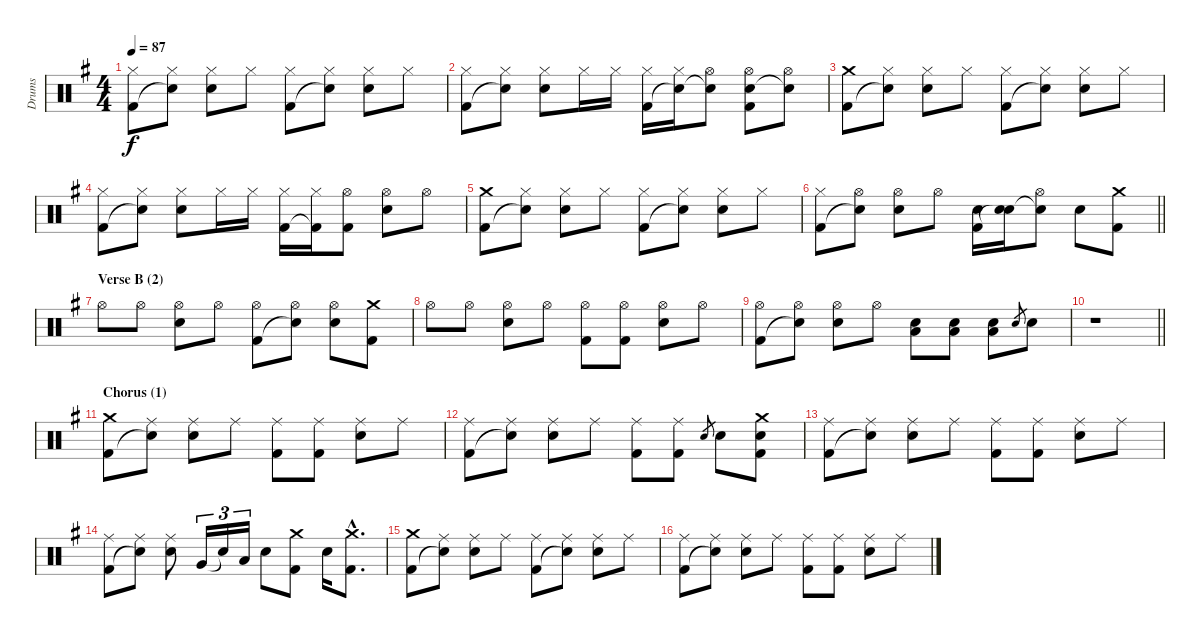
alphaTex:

\track ("Drums" "Drums") {instrument percussion}
\staff {score}
\articulation defaults
\ts (4 4)
\tempo 87
\clef neutral
\ks g
("Hi-Hat (closed)" "Kick (hit) 2").8{dy f} ("Hi-Hat (closed)" "Snare (hit)"{t}).8 ("Hi-Hat (closed)" "Electric Snare (hit)").8 "Hi-Hat (closed)".8 ("Hi-Hat (closed)" "Kick (hit) 2").8 ("Hi-Hat (closed)" "Snare (hit)"{t}).8 ("Hi-Hat (closed)" "Electric Snare (hit)").8 "Hi-Hat (closed)".8 |
("Hi-Hat (closed)" "Kick (hit) 2").8 ("Hi-Hat (closed)" "Snare (hit)"{t}).8 ("Hi-Hat (closed)" "Electric Snare (hit)").8 "Hi-Hat (closed)".16 "Hi-Hat (closed)".16 ("Hi-Hat (closed)" "Kick (hit) 2").16 ("Hi-Hat (closed)" "Snare (hit)"{t}).16 ("Hi-Hat (open)" "Snare (hit)"{t}).8 ("Hi-Hat (open)" "Electric Snare (hit)" "Kick (hit) 2").8 ("Hi-Hat (open)" "Snare (hit)"{t}).8 |
("Crash medium (hit)" "Kick (hit) 2").8 ("Hi-Hat (closed)" "Snare (hit)"{t}).8 ("Hi-Hat (closed)" "Electric Snare (hit)").8 "Hi-Hat (closed)".8 ("Hi-Hat (closed)" "Kick (hit) 2").8 ("Hi-Hat (closed)" "Snare (hit)"{t}).8 ("Hi-Hat (closed)" "Electric Snare (hit)").8 "Hi-Hat (closed)".8 |
("Hi-Hat (closed)" "Kick (hit) 2").8 ("Hi-Hat (closed)" "Snare (hit)"{t}).8 ("Hi-Hat (closed)" "Electric Snare (hit)").8 "Hi-Hat (closed)".16 "Hi-Hat (closed)".16 ("Hi-Hat (closed)" "Kick (hit) 2").16 ("Hi-Hat (closed)" "Kick (hit) 2"{t}).16 ("Hi-Hat (open)" "Kick (hit) 2").8 ("Hi-Hat (open)" "Electric Snare (hit)").8 "Hi-Hat (open)".8 |
("Crash medium (hit)" "Kick (hit) 2").8 ("Hi-Hat (closed)" "Snare (hit)"{t}).8 ("Hi-Hat (closed)" "Electric Snare (hit)").8 "Hi-Hat (closed)".8 ("Hi-Hat (closed)" "Kick (hit) 2").8 ("Hi-Hat (closed)" "Snare (hit)"{t}).8 ("Hi-Hat (closed)" "Electric Snare (hit)").8 "Hi-Hat (closed)".8 |
\barLineRight lightlight
("Hi-Hat (closed)" "Kick (hit) 2").8 ("Hi-Hat (open)" "Snare (hit)"{t}).8 ("Hi-Hat (open)" "Electric Snare (hit)").8 "Hi-Hat (open)".8 ("Electric Snare (hit)" "Kick (hit) 2").16 ("Electric Snare (hit)" "Snare (hit)"{t}).16 ("Hi-Hat (open)" "Snare (hit)"{t}).8 "Electric Snare (hit)".8 ("Crash medium (hit)" "Kick (hit) 2").8 |
\section ("" "Verse B (2)")
"Hi-Hat (open)".8 "Hi-Hat (open)".8 ("Hi-Hat (open)" "Electric Snare (hit)").8 "Hi-Hat (open)".8 ("Hi-Hat (open)" "Kick (hit) 2").8 ("Hi-Hat (open)" "Snare (hit)"{t}).8 ("Hi-Hat (open)" "Electric Snare (hit)").8 ("Crash medium (hit)" "Kick (hit) 2").8 |
"Hi-Hat (open)".8 "Hi-Hat (open)".8 ("Hi-Hat (open)" "Electric Snare (hit)").8 "Hi-Hat (open)".8 ("Hi-Hat (open)" "Kick (hit) 2").8 ("Hi-Hat (open)" "Kick (hit) 2").8 ("Hi-Hat (open)" "Electric Snare (hit)").8 "Hi-Hat (open)".8 |
("Hi-Hat (open)" "Kick (hit) 2").8 ("Hi-Hat (open)" "Snare (hit)"{t}).8 ("Hi-Hat (open)" "Electric Snare (hit)").8 "Hi-Hat (open)".8 ("Electric Snare (hit)" "Low Tom (hit)").8 ("Electric Snare (hit)" "Low Tom (hit)").8 ("Electric Snare (hit)" "Low Tom (hit)").8 "Electric Snare (hit)".8{gr} "Electric Snare (hit)".8 |
\barLineRight lightlight
r.1 |
\section ("" "Chorus (1)")
("Crash medium (hit)" "Kick (hit) 2").8 ("Ride (middle)" "Snare (hit)"{t}).8 ("Ride (middle)" "Electric Snare (hit)").8 "Ride (middle)".8 ("Ride (middle)" "Kick (hit) 2").8 ("Ride (middle)" "Kick (hit) 2").8 ("Ride (middle)" "Electric Snare (hit)").8 "Ride (middle)".8 |
("Ride (middle)" "Kick (hit) 2").8 ("Ride (middle)" "Snare (hit)"{t}).8 ("Ride (middle)" "Electric Snare (hit)").8 "Ride (middle)".8 ("Ride (middle)" "Kick (hit) 2").8 ("Ride (middle)" "Kick (hit) 2").8 "Electric Snare (hit)".8{gr} "Electric Snare (hit)".8 ("Crash medium (hit)" "Electric Snare (hit)" "Kick (hit) 2").8 |
("Ride (middle)" "Kick (hit) 2").8 ("Ride (middle)" "Snare (hit)"{t}).8 ("Ride (middle)" "Electric Snare (hit)").8 "Ride (middle)".8 ("Ride (middle)" "Kick (hit) 2").8 ("Ride (middle)" "Kick (hit) 2").8 ("Ride (middle)" "Electric Snare (hit)").8 "Ride (middle)".8 |
("Ride (middle)" "Kick (hit) 2").8 ("Ride (middle)" "Snare (hit)"{t}).8 ("Ride (middle)" "Electric Snare (hit)").8 "Very Low Tom (hit)".16{tu (3 2)} "Snare (hit)"{t}.16{tu (3 2)} "Low Tom (hit)".16{tu (3 2)} "Electric Snare (hit)".8 ("Crash medium (hit)" "Kick (hit) 2").8 "Electric Snare (hit)".16 ("Crash medium (hit)"{hac} "Kick (hit) 2"{hac}).8{d} |
("Crash medium (hit)" "Kick (hit) 2").8 ("Ride (middle)" "Snare (hit)"{t}).8 ("Ride (middle)" "Electric Snare (hit)").8 "Ride (middle)".8 ("Ride (middle)" "Kick (hit) 2").8 ("Ride (middle)" "Snare (hit)"{t}).8 ("Ride (middle)" "Electric Snare (hit)").8 "Ride (middle)".8 |
("Ride (middle)" "Kick (hit) 2").8 ("Ride (middle)" "Snare (hit)"{t}).8 ("Ride (middle)" "Electric Snare (hit)").8 "Ride (middle)".8 ("Ride (middle)" "Kick (hit) 2").8 ("Ride (middle)" "Kick (hit) 2").8 ("Ride (middle)" "Electric Snare (hit)").8 "Ride (middle)".8
